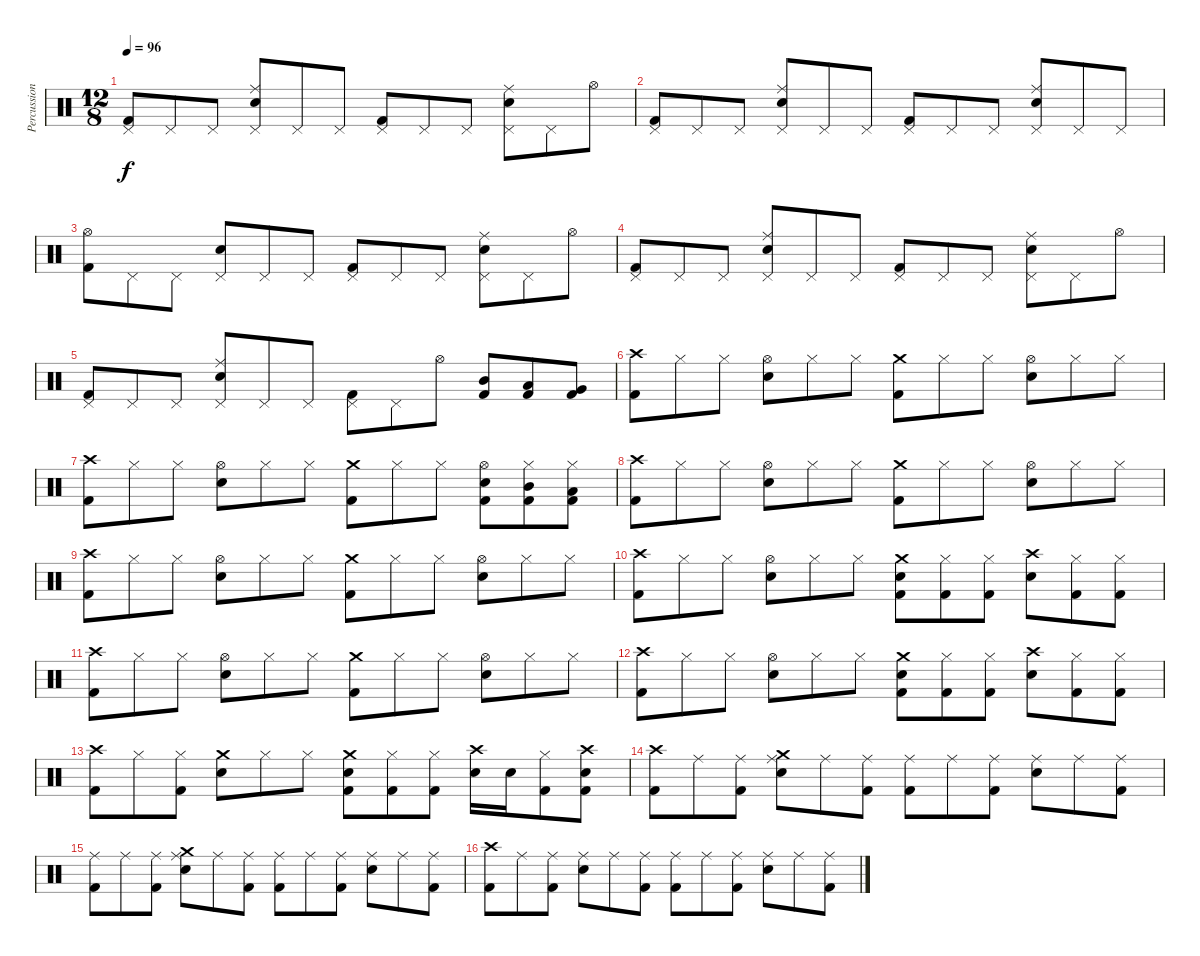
\track ("Percussion" "Percussion") {instrument percussion}
\staff {score}
\articulation defaults
\ts (12 8)
\tempo 96
\clef neutral
\ks c
("Pedal Hi-Hat (hit)" "Kick (hit) 2").8{dy f} "Pedal Hi-Hat (hit)".8 "Pedal Hi-Hat (hit)".8 ("Pedal Hi-Hat (hit)" "Ride (middle)" "Electric Snare (hit)").8 "Pedal Hi-Hat (hit)".8 "Pedal Hi-Hat (hit)".8 ("Pedal Hi-Hat (hit)" "Kick (hit) 2").8 "Pedal Hi-Hat (hit)".8 "Pedal Hi-Hat (hit)".8 ("Pedal Hi-Hat (hit)" "Ride (middle)" "Electric Snare (hit)").8 "Pedal Hi-Hat (hit)".8 "Hi-Hat (open)".8 |
("Pedal Hi-Hat (hit)" "Kick (hit) 2").8 "Pedal Hi-Hat (hit)".8 "Pedal Hi-Hat (hit)".8 ("Pedal Hi-Hat (hit)" "Ride (middle)" "Electric Snare (hit)").8 "Pedal Hi-Hat (hit)".8 "Pedal Hi-Hat (hit)".8 ("Pedal Hi-Hat (hit)" "Kick (hit) 2").8 "Pedal Hi-Hat (hit)".8 "Pedal Hi-Hat (hit)".8 ("Pedal Hi-Hat (hit)" "Ride (middle)" "Electric Snare (hit)").8 "Pedal Hi-Hat (hit)".8 "Pedal Hi-Hat (hit)".8 |
("Hi-Hat (open)" "Kick (hit) 2").8 "Pedal Hi-Hat (hit)".8 "Pedal Hi-Hat (hit)".8 ("Pedal Hi-Hat (hit)" "Electric Snare (hit)").8 "Pedal Hi-Hat (hit)".8 "Pedal Hi-Hat (hit)".8 ("Pedal Hi-Hat (hit)" "Kick (hit) 2").8 "Pedal Hi-Hat (hit)".8 "Pedal Hi-Hat (hit)".8 ("Pedal Hi-Hat (hit)" "Ride (middle)" "Electric Snare (hit)").8 "Pedal Hi-Hat (hit)".8 "Hi-Hat (open)".8 |
("Pedal Hi-Hat (hit)" "Kick (hit) 2").8 "Pedal Hi-Hat (hit)".8 "Pedal Hi-Hat (hit)".8 ("Pedal Hi-Hat (hit)" "Ride (middle)" "Electric Snare (hit)").8 "Pedal Hi-Hat (hit)".8 "Pedal Hi-Hat (hit)".8 ("Pedal Hi-Hat (hit)" "Kick (hit) 2").8 "Pedal Hi-Hat (hit)".8 "Pedal Hi-Hat (hit)".8 ("Pedal Hi-Hat (hit)" "Ride (middle)" "Electric Snare (hit)").8 "Pedal Hi-Hat (hit)".8 "Hi-Hat (open)".8 |
("Pedal Hi-Hat (hit)" "Kick (hit) 2").8 "Pedal Hi-Hat (hit)".8 "Pedal Hi-Hat (hit)".8 ("Pedal Hi-Hat (hit)" "Ride (middle)" "Electric Snare (hit)").8 "Pedal Hi-Hat (hit)".8 "Pedal Hi-Hat (hit)".8 ("Pedal Hi-Hat (hit)" "Kick (hit) 2").8 "Pedal Hi-Hat (hit)".8 "Hi-Hat (open)".8 ("Mid Tom (hit)" "Kick (hit) 2").8 ("Low Tom (hit)" "Kick (hit) 2").8 ("Very Low Tom (hit)" "Kick (hit) 2").8 |
("Crash high (hit)" "Kick (hit) 2").8 "Hi-Hat (closed)".8 "Hi-Hat (closed)".8 ("Hi-Hat (open)" "Electric Snare (hit)").8 "Hi-Hat (closed)".8 "Hi-Hat (closed)".8 ("Crash medium (hit)" "Kick (hit) 2").8 "Hi-Hat (closed)".8 "Hi-Hat (closed)".8 ("Hi-Hat (open)" "Electric Snare (hit)").8 "Hi-Hat (closed)".8 "Hi-Hat (closed)".8 |
("Crash high (hit)" "Kick (hit) 2").8 "Hi-Hat (closed)".8 "Hi-Hat (closed)".8 ("Hi-Hat (open)" "Electric Snare (hit)").8 "Hi-Hat (closed)".8 "Hi-Hat (closed)".8 ("Crash medium (hit)" "Kick (hit) 2").8 "Hi-Hat (closed)".8 "Hi-Hat (closed)".8 ("Hi-Hat (open)" "Electric Snare (hit)" "Kick (hit) 2").8 ("Hi-Hat (closed)" "Mid Tom (hit)" "Kick (hit) 2").8 ("Hi-Hat (closed)" "Low Tom (hit)" "Kick (hit) 2").8 |
("Crash high (hit)" "Kick (hit) 2").8 "Hi-Hat (closed)".8 "Hi-Hat (closed)".8 ("Hi-Hat (open)" "Electric Snare (hit)").8 "Hi-Hat (closed)".8 "Hi-Hat (closed)".8 ("Crash medium (hit)" "Kick (hit) 2").8 "Hi-Hat (closed)".8 "Hi-Hat (closed)".8 ("Hi-Hat (open)" "Electric Snare (hit)").8 "Hi-Hat (closed)".8 "Hi-Hat (closed)".8 |
("Crash high (hit)" "Kick (hit) 2").8 "Hi-Hat (closed)".8 "Hi-Hat (closed)".8 ("Hi-Hat (open)" "Electric Snare (hit)").8 "Hi-Hat (closed)".8 "Hi-Hat (closed)".8 ("Crash medium (hit)" "Kick (hit) 2").8 "Hi-Hat (closed)".8 "Hi-Hat (closed)".8 ("Hi-Hat (open)" "Electric Snare (hit)").8 "Hi-Hat (closed)".8 "Hi-Hat (closed)".8 |
("Crash high (hit)" "Kick (hit) 2").8 "Hi-Hat (closed)".8 "Hi-Hat (closed)".8 ("Hi-Hat (open)" "Electric Snare (hit)").8 "Hi-Hat (closed)".8 "Hi-Hat (closed)".8 ("Crash medium (hit)" "Electric Snare (hit)" "Kick (hit) 2").8 ("Hi-Hat (closed)" "Kick (hit) 2").8 ("Hi-Hat (closed)" "Kick (hit) 2").8 ("Crash high (hit)" "Electric Snare (hit)").8 ("Hi-Hat (closed)" "Kick (hit) 2").8 ("Hi-Hat (closed)" "Kick (hit) 2").8 |
("Crash high (hit)" "Kick (hit) 2").8 "Hi-Hat (closed)".8 "Hi-Hat (closed)".8 ("Hi-Hat (open)" "Electric Snare (hit)").8 "Hi-Hat (closed)".8 "Hi-Hat (closed)".8 ("Crash medium (hit)" "Kick (hit) 2").8 "Hi-Hat (closed)".8 "Hi-Hat (closed)".8 ("Hi-Hat (open)" "Electric Snare (hit)").8 "Hi-Hat (closed)".8 "Hi-Hat (closed)".8 |
("Crash high (hit)" "Kick (hit) 2").8 "Hi-Hat (closed)".8 "Hi-Hat (closed)".8 ("Hi-Hat (open)" "Electric Snare (hit)").8 "Hi-Hat (closed)".8 "Hi-Hat (closed)".8 ("Crash medium (hit)" "Electric Snare (hit)" "Kick (hit) 2").8 ("Hi-Hat (closed)" "Kick (hit) 2").8 ("Hi-Hat (closed)" "Kick (hit) 2").8 ("Crash high (hit)" "Electric Snare (hit)").8 ("Hi-Hat (closed)" "Kick (hit) 2").8 ("Hi-Hat (closed)" "Kick (hit) 2").8 |
("Crash high (hit)" "Kick (hit) 2").8 "Hi-Hat (closed)".8 ("Hi-Hat (closed)" "Kick (hit) 2").8 ("Crash medium (hit)" "Electric Snare (hit)").8 "Hi-Hat (closed)".8 "Hi-Hat (closed)".8 ("Crash medium (hit)" "Electric Snare (hit)" "Kick (hit) 2").8 ("Hi-Hat (closed)" "Kick (hit) 2").8 ("Hi-Hat (closed)" "Kick (hit) 2").8 ("Crash high (hit)" "Electric Snare (hit)").16 "Electric Snare (hit)".16 ("Hi-Hat (closed)" "Kick (hit) 2").8 ("Crash high (hit)" "Electric Snare (hit)" "Kick (hit) 2").8 |
("Crash high (hit)" "Kick (hit) 2").8 "Ride (middle)".8 ("Ride (middle)" "Kick (hit) 2").8 ("Crash medium (hit)" "Ride (middle)" "Electric Snare (hit)").8 "Ride (middle)".8 ("Ride (middle)" "Kick (hit) 2").8 ("Ride (middle)" "Kick (hit) 2").8 "Ride (middle)".8 ("Ride (middle)" "Kick (hit) 2").8 ("Ride (middle)" "Electric Snare (hit)").8 "Ride (middle)".8 ("Ride (middle)" "Kick (hit) 2").8 |
("Ride (middle)" "Kick (hit) 2").8 "Ride (middle)".8 ("Ride (middle)" "Kick (hit) 2").8 ("Crash medium (hit)" "Ride (middle)" "Electric Snare (hit)").8 "Ride (middle)".8 ("Ride (middle)" "Kick (hit) 2").8 ("Ride (middle)" "Kick (hit) 2").8 "Ride (middle)".8 ("Ride (middle)" "Kick (hit) 2").8 ("Ride (middle)" "Electric Snare (hit)").8 "Ride (middle)".8 ("Ride (middle)" "Kick (hit) 2").8 |
("Crash high (hit)" "Kick (hit) 2").8 "Ride (middle)".8 ("Ride (middle)" "Kick (hit) 2").8 ("Ride (middle)" "Electric Snare (hit)").8 "Ride (middle)".8 ("Ride (middle)" "Kick (hit) 2").8 ("Ride (middle)" "Kick (hit) 2").8 "Ride (middle)".8 ("Ride (middle)" "Kick (hit) 2").8 ("Ride (middle)" "Electric Snare (hit)").8 "Ride (middle)".8 ("Ride (middle)" "Kick (hit) 2").8
